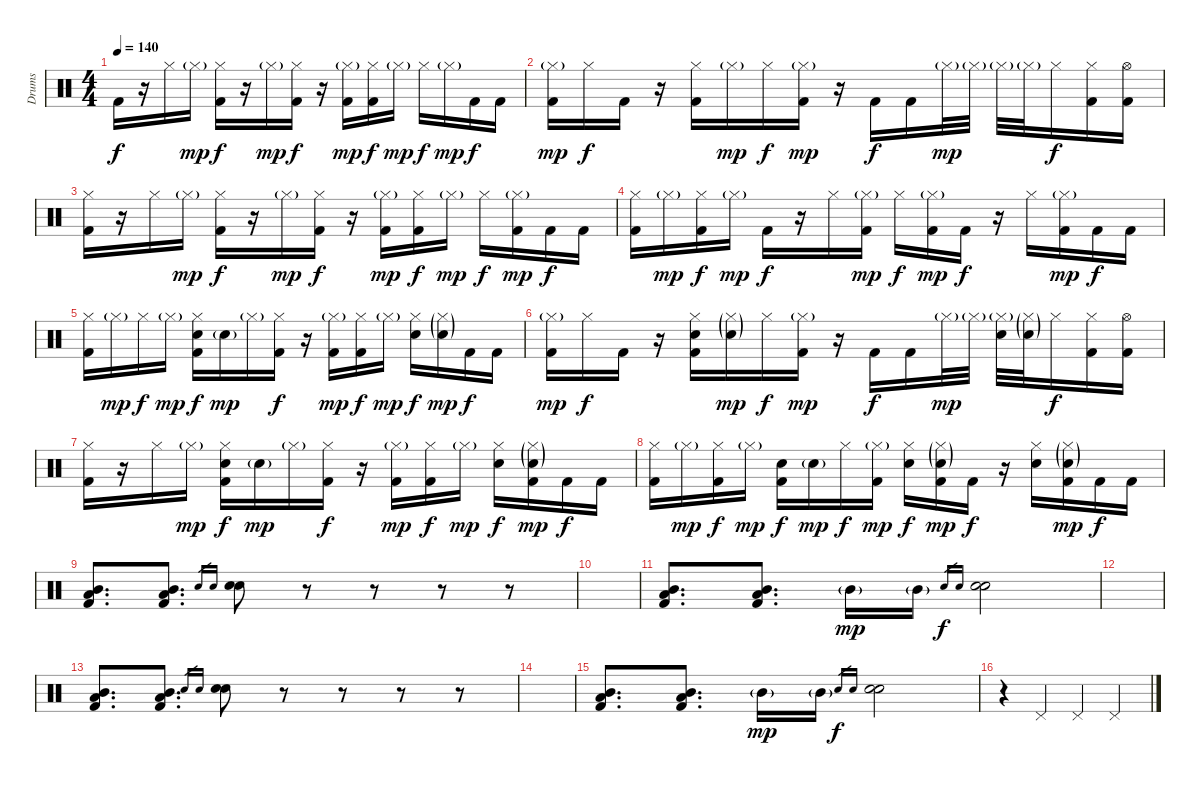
\track ("Drums" "Drums") {instrument percussion}
\staff {score}
\articulation defaults
\ts (4 4)
\tempo 140
\clef neutral
\ks c "Kick (hit) 2".16{dy f}
r.16 "Hi-Hat (closed)".16 "Hi-Hat (closed)"{g}.16{dy mp} ("Hi-Hat (closed)" "Kick (hit) 2").16{dy f} r.16 "Hi-Hat (closed)"{g}.16{dy mp} ("Hi-Hat (closed)" "Kick (hit) 2").16{dy f} r.16 ("Hi-Hat (closed)"{g} "Kick (hit) 2").16{dy mp} ("Hi-Hat (closed)" "Kick (hit) 2").16{dy f} "Hi-Hat (closed)"{g}.16{dy mp} "Hi-Hat (closed)".16{dy f} "Hi-Hat (closed)"{g}.16{dy mp} "Kick (hit) 2".16{dy f} "Kick (hit) 2".16 |
("Hi-Hat (closed)"{g} "Kick (hit) 2").16{dy mp} "Hi-Hat (closed)".16{dy f} "Kick (hit) 2".16 r.16 ("Hi-Hat (closed)" "Kick (hit) 2").16 "Hi-Hat (closed)"{g}.16{dy mp} "Hi-Hat (closed)".16{dy f} ("Hi-Hat (closed)"{g} "Kick (hit) 2").16{dy mp} r.16 "Kick (hit) 2".16{dy f} "Kick (hit) 2".16 "Hi-Hat (closed)"{g}.32{dy mp} "Hi-Hat (closed)"{g}.32 "Hi-Hat (closed)"{g}.32 "Hi-Hat (closed)"{g}.32 "Hi-Hat (closed)".16{dy f} ("Hi-Hat (closed)" "Kick (hit) 2").16 ("Hi-Hat (open)" "Kick (hit) 2").16 |
("Hi-Hat (closed)" "Kick (hit) 2").16 r.16 "Hi-Hat (closed)".16 "Hi-Hat (closed)"{g}.16{dy mp} ("Hi-Hat (closed)" "Kick (hit) 2").16{dy f} r.16 "Hi-Hat (closed)"{g}.16{dy mp} ("Hi-Hat (closed)" "Kick (hit) 2").16{dy f} r.16 ("Hi-Hat (closed)"{g} "Kick (hit) 2").16{dy mp} ("Hi-Hat (closed)" "Kick (hit) 2").16{dy f} "Hi-Hat (closed)"{g}.16{dy mp} "Hi-Hat (closed)".16{dy f} ("Hi-Hat (closed)"{g} "Kick (hit) 2").16{dy mp} "Kick (hit) 2".16{dy f} "Kick (hit) 2".16 |
("Hi-Hat (closed)" "Kick (hit) 2").16 "Hi-Hat (closed)"{g}.16{dy mp} ("Hi-Hat (closed)" "Kick (hit) 2").16{dy f} "Hi-Hat (closed)"{g}.16{dy mp} "Kick (hit) 2".16{dy f} r.16 "Hi-Hat (closed)".16 ("Hi-Hat (closed)"{g} "Kick (hit) 2").16{dy mp} "Hi-Hat (closed)".16{dy f} ("Hi-Hat (closed)"{g} "Kick (hit) 2").16{dy mp} "Kick (hit) 2".16{dy f} r.16 "Hi-Hat (closed)".16 ("Hi-Hat (closed)"{g} "Kick (hit) 2").16{dy mp} "Kick (hit) 2".16{dy f} "Kick (hit) 2".16 |
("Hi-Hat (closed)" "Kick (hit) 2").16 "Hi-Hat (closed)"{g}.16{dy mp} "Hi-Hat (closed)".16{dy f} "Hi-Hat (closed)"{g}.16{dy mp} ("Hi-Hat (closed)" "Electric Snare (hit)" "Kick (hit) 2").16{dy f} "Electric Snare (hit)"{g}.16{dy mp} "Hi-Hat (closed)"{g}.16 ("Hi-Hat (closed)" "Kick (hit) 2").16{dy f} r.16 ("Hi-Hat (closed)"{g} "Kick (hit) 2").16{dy mp} ("Hi-Hat (closed)" "Kick (hit) 2").16{dy f} "Hi-Hat (closed)"{g}.16{dy mp} ("Hi-Hat (closed)" "Electric Snare (hit)").16{dy f} ("Hi-Hat (closed)"{g} "Electric Snare (hit)"{g}).16{dy mp} "Kick (hit) 2".16{dy f} "Kick (hit) 2".16 |
("Hi-Hat (closed)"{g} "Kick (hit) 2").16{dy mp} "Hi-Hat (closed)".16{dy f} "Kick (hit) 2".16 r.16 ("Hi-Hat (closed)" "Electric Snare (hit)" "Kick (hit) 2").16 ("Hi-Hat (closed)"{g} "Electric Snare (hit)"{g}).16{dy mp} "Hi-Hat (closed)".16{dy f} ("Hi-Hat (closed)"{g} "Kick (hit) 2").16{dy mp} r.16 "Kick (hit) 2".16{dy f} "Kick (hit) 2".16 "Hi-Hat (closed)"{g}.32{dy mp} "Hi-Hat (closed)"{g}.32 ("Hi-Hat (closed)"{g} "Electric Snare (hit)").32 ("Hi-Hat (closed)"{g} "Electric Snare (hit)"{g}).32 "Hi-Hat (closed)".16{dy f} ("Hi-Hat (closed)" "Kick (hit) 2").16 ("Hi-Hat (open)" "Kick (hit) 2").16 |
("Hi-Hat (closed)" "Kick (hit) 2").16 r.16 "Hi-Hat (closed)".16 "Hi-Hat (closed)"{g}.16{dy mp} ("Hi-Hat (closed)" "Electric Snare (hit)" "Kick (hit) 2").16{dy f} "Electric Snare (hit)"{g}.16{dy mp} "Hi-Hat (closed)"{g}.16 ("Hi-Hat (closed)" "Kick (hit) 2").16{dy f} r.16 ("Hi-Hat (closed)"{g} "Kick (hit) 2").16{dy mp} ("Hi-Hat (closed)" "Kick (hit) 2").16{dy f} "Hi-Hat (closed)"{g}.16{dy mp} ("Hi-Hat (closed)" "Electric Snare (hit)").16{dy f} ("Hi-Hat (closed)"{g} "Electric Snare (hit)"{g} "Kick (hit) 2").16{dy mp} "Kick (hit) 2".16{dy f} "Kick (hit) 2".16 |
("Hi-Hat (closed)" "Kick (hit) 2").16 "Hi-Hat (closed)"{g}.16{dy mp} ("Hi-Hat (closed)" "Kick (hit) 2").16{dy f} "Hi-Hat (closed)"{g}.16{dy mp} ("Electric Snare (hit)" "Kick (hit) 2").16{dy f} "Electric Snare (hit)"{g}.16{dy mp} "Hi-Hat (closed)".16{dy f} ("Hi-Hat (closed)"{g} "Kick (hit) 2").16{dy mp} ("Hi-Hat (closed)" "Electric Snare (hit)").16{dy f} ("Hi-Hat (closed)"{g} "Electric Snare (hit)"{g} "Kick (hit) 2").16{dy mp} "Kick (hit) 2".16{dy f} r.16 ("Hi-Hat (closed)" "Electric Snare (hit)").16 ("Hi-Hat (closed)"{g} "Electric Snare (hit)"{g} "Kick (hit) 2").16{dy mp} "Kick (hit) 2".16{dy f} "Kick (hit) 2".16 |
("Low Tom (hit)" "Mid Tom (hit)" "Kick (hit) 2").8{d} ("Low Tom (hit)" "Mid Tom (hit)" "Kick (hit) 2").8{d} "Electric Snare (hit)".16{gr} "Electric Snare (hit)".16{gr} ("Electric Snare (hit)" "Electric Snare (hit)").8 r.8 r.8 r.8 r.8 |
|
("Low Tom (hit)" "Mid Tom (hit)" "Kick (hit) 2").8{d} ("Low Tom (hit)" "Mid Tom (hit)" "Kick (hit) 2").8{d} "Mid Tom (hit)"{g}.16{dy mp} "Mid Tom (hit)"{g}.16 "Electric Snare (hit)".16{gr dy f} "Electric Snare (hit)".16{gr} ("Electric Snare (hit)" "Electric Snare (hit)").2 |
|
("Low Tom (hit)" "Mid Tom (hit)" "Kick (hit) 2").8{d} ("Low Tom (hit)" "Mid Tom (hit)" "Kick (hit) 2").8{d} "Electric Snare (hit)".16{gr} "Electric Snare (hit)".16{gr} ("Electric Snare (hit)" "Electric Snare (hit)").8 r.8 r.8 r.8 r.8 |
|
("Low Tom (hit)" "Mid Tom (hit)" "Kick (hit) 2").8{d} ("Low Tom (hit)" "Mid Tom (hit)" "Kick (hit) 2").8{d} "Mid Tom (hit)"{g}.16{dy mp} "Mid Tom (hit)"{g}.16 "Electric Snare (hit)".16{gr dy f} "Electric Snare (hit)".16{gr} ("Electric Snare (hit)" "Electric Snare (hit)").2 |
r.4 "Pedal Hi-Hat (hit)".4 "Pedal Hi-Hat (hit)".4 "Pedal Hi-Hat (hit)".4
